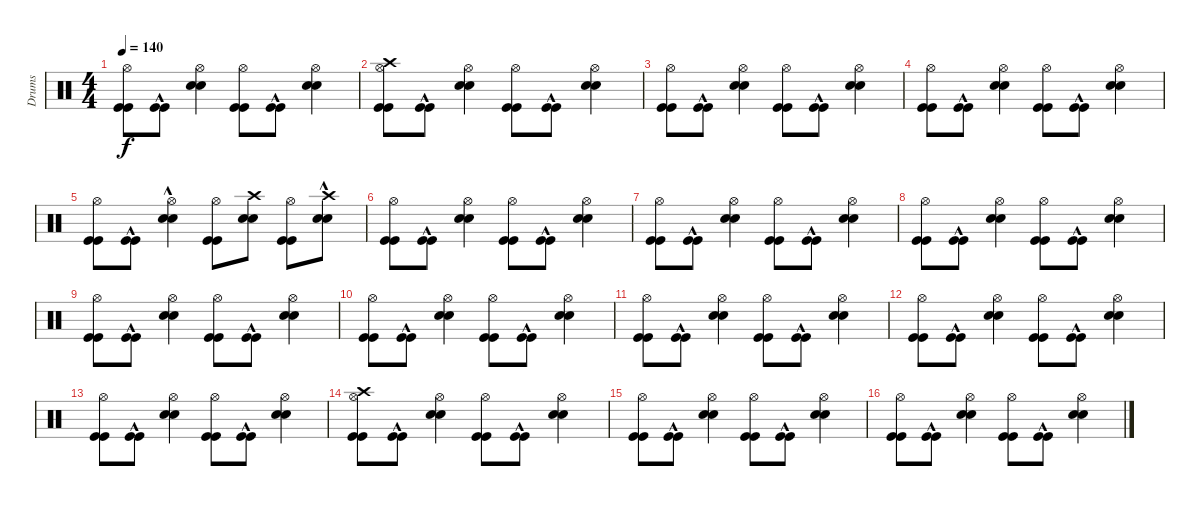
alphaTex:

\track ("Drums" "Drums") {instrument percussion}
\staff {score}
\articulation defaults
\ts (4 4)
\tempo 140
\clef neutral
\ks c
("Kick (hit)" "Kick (hit)" "Hi-Hat (open)").8{dy f} ("Kick (hit)"{hac} "Kick (hit)"{hac}).8 ("Snare (hit) 2" "Snare (hit) 2" "Hi-Hat (open)").4 ("Kick (hit)" "Kick (hit)" "Hi-Hat (open)").8 ("Kick (hit)"{hac} "Kick (hit)"{hac}).8 ("Snare (hit) 2" "Snare (hit) 2" "Hi-Hat (open)").4 |
("Kick (hit)" "Kick (hit)" "Hi-Hat (open)" "Crash high (hit)").8 ("Kick (hit)"{hac} "Kick (hit)"{hac}).8 ("Snare (hit) 2" "Snare (hit) 2" "Hi-Hat (open)").4 ("Kick (hit)" "Kick (hit)" "Hi-Hat (open)").8 ("Kick (hit)"{hac} "Kick (hit)"{hac}).8 ("Snare (hit) 2" "Snare (hit) 2" "Hi-Hat (open)").4 |
("Kick (hit)" "Kick (hit)" "Hi-Hat (open)").8 ("Kick (hit)"{hac} "Kick (hit)"{hac}).8 ("Snare (hit) 2" "Snare (hit) 2" "Hi-Hat (open)").4 ("Kick (hit)" "Kick (hit)" "Hi-Hat (open)").8 ("Kick (hit)"{hac} "Kick (hit)"{hac}).8 ("Snare (hit) 2" "Snare (hit) 2" "Hi-Hat (open)").4 |
("Kick (hit)" "Kick (hit)" "Hi-Hat (open)").8 ("Kick (hit)"{hac} "Kick (hit)"{hac}).8 ("Snare (hit) 2" "Snare (hit) 2" "Hi-Hat (open)").4 ("Kick (hit)" "Kick (hit)" "Hi-Hat (open)").8 ("Kick (hit)"{hac} "Kick (hit)"{hac}).8 ("Snare (hit) 2" "Snare (hit) 2" "Hi-Hat (open)").4 |
("Kick (hit)" "Kick (hit)" "Hi-Hat (open)").8 ("Kick (hit)"{hac} "Kick (hit)"{hac}).8 ("Snare (hit) 2"{hac} "Snare (hit) 2"{hac} "Hi-Hat (open)").4 ("Kick (hit)" "Kick (hit)" "Hi-Hat (open)").8 ("Snare (hit) 2" "Snare (hit) 2" "Crash high (hit)").8 ("Kick (hit)" "Kick (hit)" "Hi-Hat (open)").8 ("Snare (hit) 2"{hac} "Snare (hit) 2"{hac} "Crash high (hit)").8 |
("Kick (hit)" "Kick (hit)" "Hi-Hat (open)").8 ("Kick (hit)"{hac} "Kick (hit)"{hac}).8 ("Snare (hit) 2" "Snare (hit) 2" "Hi-Hat (open)").4 ("Kick (hit)" "Kick (hit)" "Hi-Hat (open)").8 ("Kick (hit)"{hac} "Kick (hit)"{hac}).8 ("Snare (hit) 2" "Snare (hit) 2" "Hi-Hat (open)").4 |
("Kick (hit)" "Kick (hit)" "Hi-Hat (open)").8 ("Kick (hit)"{hac} "Kick (hit)"{hac}).8 ("Snare (hit) 2" "Snare (hit) 2" "Hi-Hat (open)").4 ("Kick (hit)" "Kick (hit)" "Hi-Hat (open)").8 ("Kick (hit)"{hac} "Kick (hit)"{hac}).8 ("Snare (hit) 2" "Snare (hit) 2" "Hi-Hat (open)").4 |
("Kick (hit)" "Kick (hit)" "Hi-Hat (open)").8 ("Kick (hit)"{hac} "Kick (hit)"{hac}).8 ("Snare (hit) 2" "Snare (hit) 2" "Hi-Hat (open)").4 ("Kick (hit)" "Kick (hit)" "Hi-Hat (open)").8 ("Kick (hit)"{hac} "Kick (hit)"{hac}).8 ("Snare (hit) 2" "Snare (hit) 2" "Hi-Hat (open)").4 |
("Kick (hit)" "Kick (hit)" "Hi-Hat (open)").8 ("Kick (hit)"{hac} "Kick (hit)"{hac}).8 ("Snare (hit) 2" "Snare (hit) 2" "Hi-Hat (open)").4 ("Kick (hit)" "Kick (hit)" "Hi-Hat (open)").8 ("Kick (hit)"{hac} "Kick (hit)"{hac}).8 ("Snare (hit) 2" "Snare (hit) 2" "Hi-Hat (open)").4 |
("Kick (hit)" "Kick (hit)" "Hi-Hat (open)").8 ("Kick (hit)"{hac} "Kick (hit)"{hac}).8 ("Snare (hit) 2" "Snare (hit) 2" "Hi-Hat (open)").4 ("Kick (hit)" "Kick (hit)" "Hi-Hat (open)").8 ("Kick (hit)"{hac} "Kick (hit)"{hac}).8 ("Snare (hit) 2" "Snare (hit) 2" "Hi-Hat (open)").4 |
("Kick (hit)" "Kick (hit)" "Hi-Hat (open)").8 ("Kick (hit)"{hac} "Kick (hit)"{hac}).8 ("Snare (hit) 2" "Snare (hit) 2" "Hi-Hat (open)").4 ("Kick (hit)" "Kick (hit)" "Hi-Hat (open)").8 ("Kick (hit)"{hac} "Kick (hit)"{hac}).8 ("Snare (hit) 2" "Snare (hit) 2" "Hi-Hat (open)").4 |
("Kick (hit)" "Kick (hit)" "Hi-Hat (open)").8 ("Kick (hit)"{hac} "Kick (hit)"{hac}).8 ("Snare (hit) 2" "Snare (hit) 2" "Hi-Hat (open)").4 ("Kick (hit)" "Kick (hit)" "Hi-Hat (open)").8 ("Kick (hit)"{hac} "Kick (hit)"{hac}).8 ("Snare (hit) 2" "Snare (hit) 2" "Hi-Hat (open)").4 |
("Kick (hit)" "Kick (hit)" "Hi-Hat (open)").8 ("Kick (hit)"{hac} "Kick (hit)"{hac}).8 ("Snare (hit) 2" "Snare (hit) 2" "Hi-Hat (open)").4 ("Kick (hit)" "Kick (hit)" "Hi-Hat (open)").8 ("Kick (hit)"{hac} "Kick (hit)"{hac}).8 ("Snare (hit) 2" "Snare (hit) 2" "Hi-Hat (open)").4 |
("Kick (hit)" "Kick (hit)" "Hi-Hat (open)" "Crash high (hit)").8 ("Kick (hit)"{hac} "Kick (hit)"{hac}).8 ("Snare (hit) 2" "Snare (hit) 2" "Hi-Hat (open)").4 ("Kick (hit)" "Kick (hit)" "Hi-Hat (open)").8 ("Kick (hit)"{hac} "Kick (hit)"{hac}).8 ("Snare (hit) 2" "Snare (hit) 2" "Hi-Hat (open)").4 |
("Kick (hit)" "Kick (hit)" "Hi-Hat (open)").8 ("Kick (hit)"{hac} "Kick (hit)"{hac}).8 ("Snare (hit) 2" "Snare (hit) 2" "Hi-Hat (open)").4 ("Kick (hit)" "Kick (hit)" "Hi-Hat (open)").8 ("Kick (hit)"{hac} "Kick (hit)"{hac}).8 ("Snare (hit) 2" "Snare (hit) 2" "Hi-Hat (open)").4 |
("Kick (hit)" "Kick (hit)" "Hi-Hat (open)").8 ("Kick (hit)"{hac} "Kick (hit)"{hac}).8 ("Snare (hit) 2" "Snare (hit) 2" "Hi-Hat (open)").4 ("Kick (hit)" "Kick (hit)" "Hi-Hat (open)").8 ("Kick (hit)"{hac} "Kick (hit)"{hac}).8 ("Snare (hit) 2" "Snare (hit) 2" "Hi-Hat (open)").4
